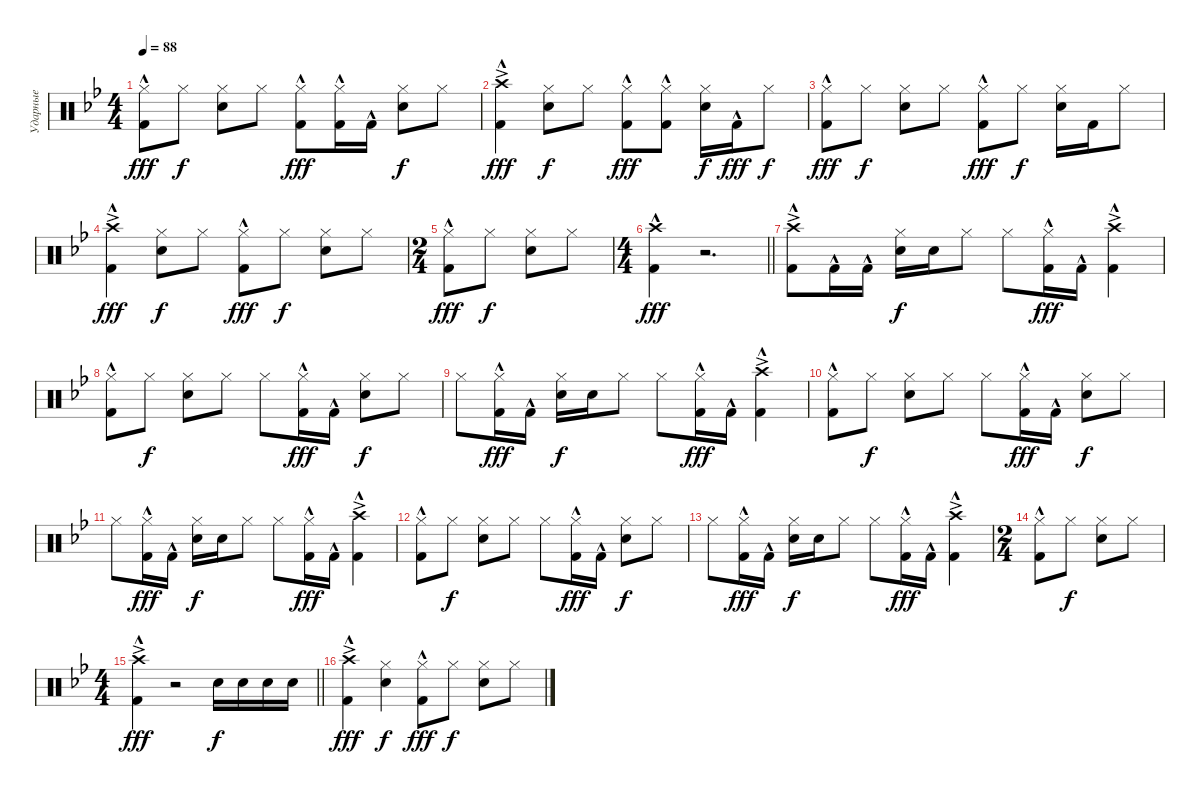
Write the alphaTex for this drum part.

\track ("Ударные" "Ударные") {instrument percussion}
\staff
\articulation defaults
\ts (4 4)
\tempo 88
\clef neutral
\ks bb
("Hi-Hat (closed)" "Kick (hit) 2"{hac}).8{dy fff} "Hi-Hat (closed)".8{dy f} ("Hi-Hat (closed)" "Snare (hit) 2").8 "Hi-Hat (closed)".8 ("Hi-Hat (closed)" "Kick (hit) 2"{hac}).8{dy fff} ("Hi-Hat (closed)" "Kick (hit) 2"{hac}).16 "Kick (hit) 2"{hac}.16 ("Hi-Hat (closed)" "Snare (hit) 2").8{dy f} "Hi-Hat (closed)".8 |
("Crash high (hit)"{ac} "Kick (hit) 2"{hac}).4{dy fff} ("Hi-Hat (closed)" "Snare (hit) 2").8{dy f} "Hi-Hat (closed)".8 ("Hi-Hat (closed)" "Kick (hit) 2"{hac}).8{dy fff} ("Hi-Hat (closed)" "Kick (hit) 2"{hac}).8 ("Hi-Hat (closed)" "Snare (hit) 2").16{dy f} "Kick (hit) 2"{hac}.16{dy fff} "Hi-Hat (closed)".8{dy f} |
("Hi-Hat (closed)" "Kick (hit) 2"{hac}).8{dy fff} "Hi-Hat (closed)".8{dy f} ("Hi-Hat (closed)" "Snare (hit) 2").8 "Hi-Hat (closed)".8 ("Hi-Hat (closed)" "Kick (hit) 2"{hac}).8{dy fff} "Hi-Hat (closed)".8{dy f} ("Hi-Hat (closed)" "Snare (hit) 2").16 "Kick (hit) 2".16 "Hi-Hat (closed)".8 |
("Crash high (hit)"{ac} "Kick (hit) 2"{hac}).4{dy fff} ("Hi-Hat (closed)" "Snare (hit) 2").8{dy f} "Hi-Hat (closed)".8 ("Hi-Hat (closed)" "Kick (hit) 2"{hac}).8{dy fff} "Hi-Hat (closed)".8{dy f} ("Hi-Hat (closed)" "Snare (hit) 2").8 "Hi-Hat (closed)".8 |
\ts (2 4)
("Hi-Hat (closed)" "Kick (hit) 2"{hac}).8{dy fff} "Hi-Hat (closed)".8{dy f} ("Hi-Hat (closed)" "Snare (hit) 2").8 "Hi-Hat (closed)".8 |
\ts (4 4)
\barLineRight lightlight
("Crash high (hit)"{hac} "Kick (hit) 2"{hac}).4{dy fff} r.2{d} |
("Crash high (hit)"{ac} "Kick (hit) 2"{hac}).8 "Kick (hit) 2"{hac}.16 "Kick (hit) 2"{hac}.16 ("Hi-Hat (closed)" "Snare (hit) 2").16{dy f} "Snare (hit) 2".16 "Hi-Hat (closed)".8 "Hi-Hat (closed)".8 ("Hi-Hat (closed)" "Kick (hit) 2"{hac}).16{dy fff} "Kick (hit) 2"{hac}.16 ("Crash high (hit)"{ac} "Kick (hit) 2"{hac}).4 |
("Hi-Hat (closed)" "Kick (hit) 2"{hac}).8 "Hi-Hat (closed)".8{dy f} ("Hi-Hat (closed)" "Snare (hit) 2").8 "Hi-Hat (closed)".8 "Hi-Hat (closed)".8 ("Hi-Hat (closed)" "Kick (hit) 2"{hac}).16{dy fff} "Kick (hit) 2"{hac}.16 ("Hi-Hat (closed)" "Snare (hit) 2").8{dy f} "Hi-Hat (closed)".8 |
"Hi-Hat (closed)".8 ("Hi-Hat (closed)" "Kick (hit) 2"{hac}).16{dy fff} "Kick (hit) 2"{hac}.16 ("Hi-Hat (closed)" "Snare (hit) 2").16{dy f} "Snare (hit) 2".16 "Hi-Hat (closed)".8 "Hi-Hat (closed)".8 ("Hi-Hat (closed)" "Kick (hit) 2"{hac}).16{dy fff} "Kick (hit) 2"{hac}.16 ("Crash high (hit)"{ac} "Kick (hit) 2"{hac}).4 |
("Hi-Hat (closed)" "Kick (hit) 2"{hac}).8 "Hi-Hat (closed)".8{dy f} ("Hi-Hat (closed)" "Snare (hit) 2").8 "Hi-Hat (closed)".8 "Hi-Hat (closed)".8 ("Hi-Hat (closed)" "Kick (hit) 2"{hac}).16{dy fff} "Kick (hit) 2"{hac}.16 ("Hi-Hat (closed)" "Snare (hit) 2").8{dy f} "Hi-Hat (closed)".8 |
"Hi-Hat (closed)".8 ("Hi-Hat (closed)" "Kick (hit) 2"{hac}).16{dy fff} "Kick (hit) 2"{hac}.16 ("Hi-Hat (closed)" "Snare (hit) 2").16{dy f} "Snare (hit) 2".16 "Hi-Hat (closed)".8 "Hi-Hat (closed)".8 ("Hi-Hat (closed)" "Kick (hit) 2"{hac}).16{dy fff} "Kick (hit) 2"{hac}.16 ("Crash high (hit)"{ac} "Kick (hit) 2"{hac}).4 |
("Hi-Hat (closed)" "Kick (hit) 2"{hac}).8 "Hi-Hat (closed)".8{dy f} ("Hi-Hat (closed)" "Snare (hit) 2").8 "Hi-Hat (closed)".8 "Hi-Hat (closed)".8 ("Hi-Hat (closed)" "Kick (hit) 2"{hac}).16{dy fff} "Kick (hit) 2"{hac}.16 ("Hi-Hat (closed)" "Snare (hit) 2").8{dy f} "Hi-Hat (closed)".8 |
"Hi-Hat (closed)".8 ("Hi-Hat (closed)" "Kick (hit) 2"{hac}).16{dy fff} "Kick (hit) 2"{hac}.16 ("Hi-Hat (closed)" "Snare (hit) 2").16{dy f} "Snare (hit) 2".16 "Hi-Hat (closed)".8 "Hi-Hat (closed)".8 ("Hi-Hat (closed)" "Kick (hit) 2"{hac}).16{dy fff} "Kick (hit) 2"{hac}.16 ("Crash high (hit)"{ac} "Kick (hit) 2"{hac}).4 |
\ts (2 4)
("Hi-Hat (closed)" "Kick (hit) 2"{hac}).8 "Hi-Hat (closed)".8{dy f} ("Hi-Hat (closed)" "Snare (hit) 2").8 "Hi-Hat (closed)".8 |
\ts (4 4)
\barLineRight lightlight
("Crash high (hit)"{ac} "Kick (hit) 2"{hac}).4{dy fff} r.2 "Snare (hit) 2".16{dy f} "Snare (hit) 2".16 "Snare (hit) 2".16 "Snare (hit) 2".16 |
("Crash high (hit)"{ac} "Kick (hit) 2"{hac}).4{dy fff} ("Hi-Hat (closed)" "Snare (hit) 2").4{dy f} ("Hi-Hat (closed)" "Kick (hit) 2"{hac}).8{dy fff} "Hi-Hat (closed)".8{dy f} ("Hi-Hat (closed)" "Snare (hit) 2").8 "Hi-Hat (closed)".8
